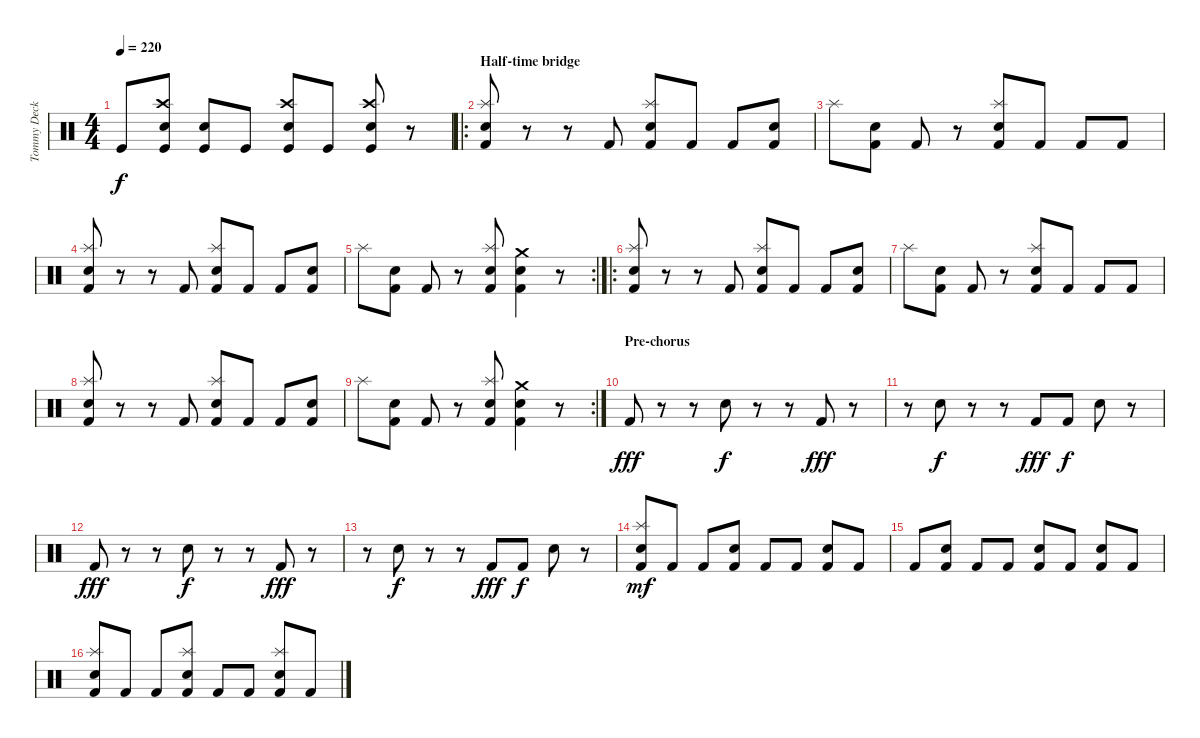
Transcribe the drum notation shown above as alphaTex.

\track ("Tommy Decker" "Tommy Deck") {instrument percussion}
\staff {score}
\articulation defaults
\ts (4 4)
\tempo 220
\clef neutral
\ks c "Kick (hit)".8{dy f}
("Crash high (hit)" "Electric Snare (hit)" "Kick (hit)").8 ("Electric Snare (hit)" "Kick (hit)").8 "Kick (hit)".8 ("Crash high (hit)" "Electric Snare (hit)" "Kick (hit)").8 "Kick (hit)".8 ("Crash high (hit)" "Electric Snare (hit)" "Kick (hit)").8 r.8 |
\ro
\section ("" "Half-time bridge")
("Splash (hit)" "Electric Snare (hit)" "Kick (hit) 2").8 r.8 r.8 "Kick (hit) 2".8 ("Splash (hit)" "Electric Snare (hit)" "Kick (hit) 2").8 "Kick (hit) 2".8 "Kick (hit) 2".8 ("Electric Snare (hit)" "Kick (hit) 2").8 |
"Splash (hit)".8 ("Electric Snare (hit)" "Kick (hit) 2").8 "Kick (hit) 2".8 r.8 ("Splash (hit)" "Electric Snare (hit)" "Kick (hit) 2").8 "Kick (hit) 2".8 "Kick (hit) 2".8 "Kick (hit) 2".8 |
("Splash (hit)" "Electric Snare (hit)" "Kick (hit) 2").8 r.8 r.8 "Kick (hit) 2".8 ("Splash (hit)" "Electric Snare (hit)" "Kick (hit) 2").8 "Kick (hit) 2".8 "Kick (hit) 2".8 ("Electric Snare (hit)" "Kick (hit) 2").8 |
\rc 2 "Splash (hit)".8
("Electric Snare (hit)" "Kick (hit) 2").8 "Kick (hit) 2".8 r.8 ("Splash (hit)" "Electric Snare (hit)" "Kick (hit) 2").8 ("Crash medium (hit)" "Electric Snare (hit)" "Kick (hit) 2").4 r.8 |
\ro
("Splash (hit)" "Electric Snare (hit)" "Kick (hit) 2").8 r.8 r.8 "Kick (hit) 2".8 ("Splash (hit)" "Electric Snare (hit)" "Kick (hit) 2").8 "Kick (hit) 2".8 "Kick (hit) 2".8 ("Electric Snare (hit)" "Kick (hit) 2").8 |
"Splash (hit)".8 ("Electric Snare (hit)" "Kick (hit) 2").8 "Kick (hit) 2".8 r.8 ("Splash (hit)" "Electric Snare (hit)" "Kick (hit) 2").8 "Kick (hit) 2".8 "Kick (hit) 2".8 "Kick (hit) 2".8 |
("Splash (hit)" "Electric Snare (hit)" "Kick (hit) 2").8 r.8 r.8 "Kick (hit) 2".8 ("Splash (hit)" "Electric Snare (hit)" "Kick (hit) 2").8 "Kick (hit) 2".8 "Kick (hit) 2".8 ("Electric Snare (hit)" "Kick (hit) 2").8 |
\rc 2 "Splash (hit)".8
("Electric Snare (hit)" "Kick (hit) 2").8 "Kick (hit) 2".8 r.8 ("Splash (hit)" "Electric Snare (hit)" "Kick (hit) 2").8 ("Crash medium (hit)" "Electric Snare (hit)" "Kick (hit) 2").4 r.8 |
\section ("" "Pre-chorus")
"Kick (hit) 2".8{dy fff} r.8 r.8 "Electric Snare (hit)".8{dy f} r.8 r.8 "Kick (hit) 2".8{dy fff} r.8 |
r.8 "Electric Snare (hit)".8{dy f} r.8 r.8 "Kick (hit) 2".8{dy fff} "Kick (hit) 2".8{dy f} "Electric Snare (hit)".8 r.8 |
"Kick (hit) 2".8{dy fff} r.8 r.8 "Electric Snare (hit)".8{dy f} r.8 r.8 "Kick (hit) 2".8{dy fff} r.8 |
r.8 "Electric Snare (hit)".8{dy f} r.8 r.8 "Kick (hit) 2".8{dy fff} "Kick (hit) 2".8{dy f} "Electric Snare (hit)".8 r.8 |
("Splash (hit)" "Electric Snare (hit)" "Kick (hit) 2").8{dy mf} "Kick (hit) 2".8 "Kick (hit) 2".8 ("Electric Snare (hit)" "Kick (hit) 2").8 "Kick (hit) 2".8 "Kick (hit) 2".8 ("Electric Snare (hit)" "Kick (hit) 2").8 "Kick (hit) 2".8 |
"Kick (hit) 2".8 ("Electric Snare (hit)" "Kick (hit) 2").8 "Kick (hit) 2".8 "Kick (hit) 2".8 ("Electric Snare (hit)" "Kick (hit) 2").8 "Kick (hit) 2".8 ("Electric Snare (hit)" "Kick (hit) 2").8 "Kick (hit) 2".8 |
("Splash (hit)" "Electric Snare (hit)" "Kick (hit) 2").8 "Kick (hit) 2".8 "Kick (hit) 2".8 ("Splash (hit)" "Electric Snare (hit)" "Kick (hit) 2").8 "Kick (hit) 2".8 "Kick (hit) 2".8 ("Splash (hit)" "Electric Snare (hit)" "Kick (hit) 2").8 "Kick (hit) 2".8
